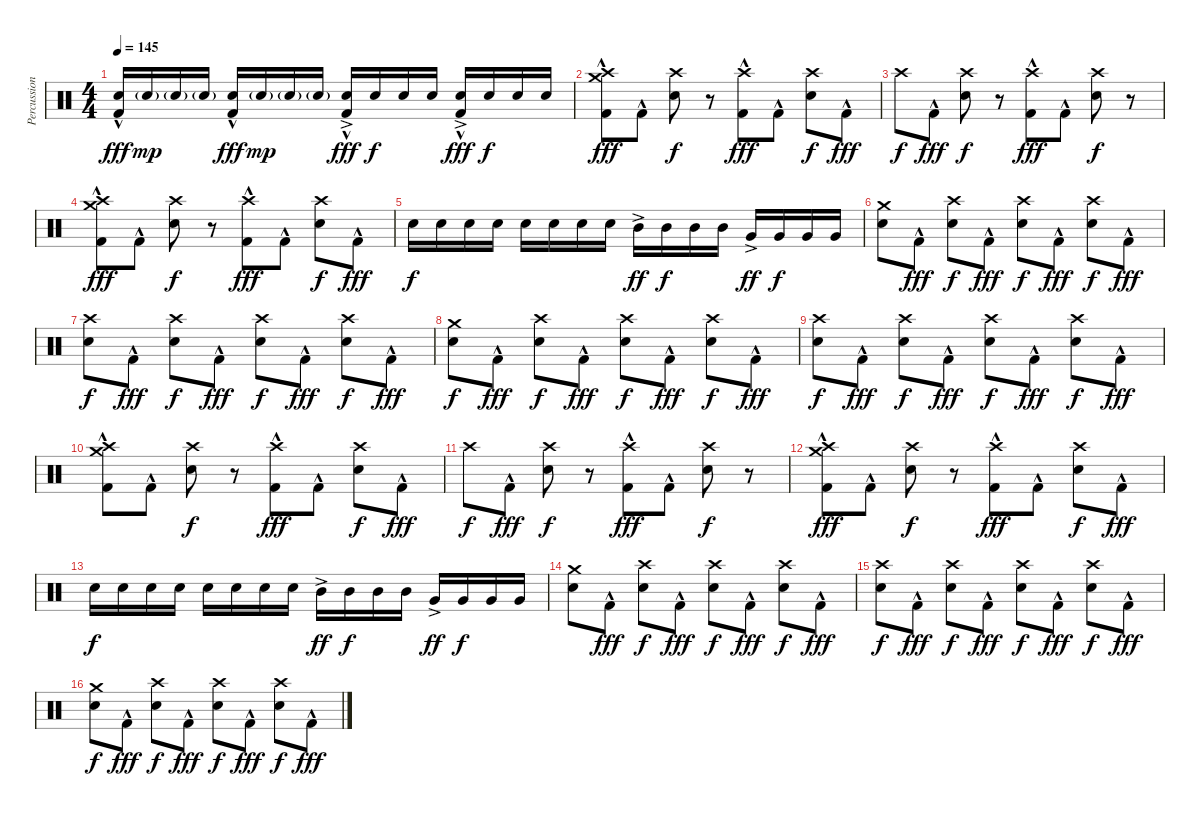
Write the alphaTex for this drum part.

\track ("Percussion" "Percussion") {instrument percussion}
\staff {score}
\articulation defaults
\ts (4 4)
\tempo 145
\clef neutral
\ks c
("Snare (hit) 2" "Kick (hit) 2"{hac}).16{dy fff} "Snare (hit) 2"{g}.16{dy mp} "Snare (hit) 2"{g}.16 "Snare (hit) 2"{g}.16 ("Snare (hit) 2" "Kick (hit) 2"{hac}).16{dy fff} "Snare (hit) 2"{g}.16{dy mp} "Snare (hit) 2"{g}.16 "Snare (hit) 2"{g}.16 ("Snare (hit) 2"{ac} "Kick (hit) 2"{hac}).16{dy fff} "Snare (hit) 2".16{dy f} "Snare (hit) 2".16 "Snare (hit) 2".16 ("Snare (hit) 2"{ac} "Kick (hit) 2"{hac}).16{dy fff} "Snare (hit) 2".16{dy f} "Snare (hit) 2".16 "Snare (hit) 2".16 |
("Crash medium (hit)" "Crash high (hit)" "Kick (hit) 2"{hac}).8{dy fff} "Kick (hit) 2"{hac}.8 ("Crash high (hit)" "Snare (hit) 2").8{dy f} r.8 ("Crash high (hit)" "Kick (hit) 2"{hac}).8{dy fff} "Kick (hit) 2"{hac}.8 ("Crash high (hit)" "Snare (hit) 2").8{dy f} "Kick (hit) 2"{hac}.8{dy fff} |
"Crash high (hit)".8{dy f} "Kick (hit) 2"{hac}.8{dy fff} ("Crash high (hit)" "Snare (hit) 2").8{dy f} r.8 ("Crash high (hit)" "Kick (hit) 2"{hac}).8{dy fff} "Kick (hit) 2"{hac}.8 ("Crash high (hit)" "Snare (hit) 2").8{dy f} r.8 |
("Crash medium (hit)" "Crash high (hit)" "Kick (hit) 2"{hac}).8{dy fff} "Kick (hit) 2"{hac}.8 ("Crash high (hit)" "Snare (hit) 2").8{dy f} r.8 ("Crash high (hit)" "Kick (hit) 2"{hac}).8{dy fff} "Kick (hit) 2"{hac}.8 ("Crash high (hit)" "Snare (hit) 2").8{dy f} "Kick (hit) 2"{hac}.8{dy fff} |
"Snare (hit) 2".16{dy f} "Snare (hit) 2".16 "Snare (hit) 2".16 "Snare (hit) 2".16 "Snare (hit) 2".16 "Snare (hit) 2".16 "Snare (hit) 2".16 "Snare (hit) 2".16 "Mid Tom (hit)"{ac}.16{dy ff} "Mid Tom (hit)".16{dy f} "Mid Tom (hit)".16 "Mid Tom (hit)".16 "Very Low Tom (hit)"{ac}.16{dy ff} "Very Low Tom (hit)".16{dy f} "Very Low Tom (hit)".16 "Very Low Tom (hit)".16 |
("Crash medium (hit)" "Snare (hit) 2").8 "Kick (hit) 2"{hac}.8{dy fff} ("Crash high (hit)" "Snare (hit) 2").8{dy f} "Kick (hit) 2"{hac}.8{dy fff} ("Crash high (hit)" "Snare (hit) 2").8{dy f} "Kick (hit) 2"{hac}.8{dy fff} ("Crash high (hit)" "Snare (hit) 2").8{dy f} "Kick (hit) 2"{hac}.8{dy fff} |
("Crash high (hit)" "Snare (hit) 2").8{dy f} "Kick (hit) 2"{hac}.8{dy fff} ("Crash high (hit)" "Snare (hit) 2").8{dy f} "Kick (hit) 2"{hac}.8{dy fff} ("Crash high (hit)" "Snare (hit) 2").8{dy f} "Kick (hit) 2"{hac}.8{dy fff} ("Crash high (hit)" "Snare (hit) 2").8{dy f} "Kick (hit) 2"{hac}.8{dy fff} |
("Crash medium (hit)" "Snare (hit) 2").8{dy f} "Kick (hit) 2"{hac}.8{dy fff} ("Crash high (hit)" "Snare (hit) 2").8{dy f} "Kick (hit) 2"{hac}.8{dy fff} ("Crash high (hit)" "Snare (hit) 2").8{dy f} "Kick (hit) 2"{hac}.8{dy fff} ("Crash high (hit)" "Snare (hit) 2").8{dy f} "Kick (hit) 2"{hac}.8{dy fff} |
("Crash high (hit)" "Snare (hit) 2").8{dy f} "Kick (hit) 2"{hac}.8{dy fff} ("Crash high (hit)" "Snare (hit) 2").8{dy f} "Kick (hit) 2"{hac}.8{dy fff} ("Crash high (hit)" "Snare (hit) 2").8{dy f} "Kick (hit) 2"{hac}.8{dy fff} ("Crash high (hit)" "Snare (hit) 2").8{dy f} "Kick (hit) 2"{hac}.8{dy fff} |
("Crash medium (hit)" "Crash high (hit)" "Kick (hit) 2"{hac}).8 "Kick (hit) 2"{hac}.8 ("Crash high (hit)" "Snare (hit) 2").8{dy f} r.8 ("Crash high (hit)" "Kick (hit) 2"{hac}).8{dy fff} "Kick (hit) 2"{hac}.8 ("Crash high (hit)" "Snare (hit) 2").8{dy f} "Kick (hit) 2"{hac}.8{dy fff} |
"Crash high (hit)".8{dy f} "Kick (hit) 2"{hac}.8{dy fff} ("Crash high (hit)" "Snare (hit) 2").8{dy f} r.8 ("Crash high (hit)" "Kick (hit) 2"{hac}).8{dy fff} "Kick (hit) 2"{hac}.8 ("Crash high (hit)" "Snare (hit) 2").8{dy f} r.8 |
("Crash medium (hit)" "Crash high (hit)" "Kick (hit) 2"{hac}).8{dy fff} "Kick (hit) 2"{hac}.8 ("Crash high (hit)" "Snare (hit) 2").8{dy f} r.8 ("Crash high (hit)" "Kick (hit) 2"{hac}).8{dy fff} "Kick (hit) 2"{hac}.8 ("Crash high (hit)" "Snare (hit) 2").8{dy f} "Kick (hit) 2"{hac}.8{dy fff} |
"Snare (hit) 2".16{dy f} "Snare (hit) 2".16 "Snare (hit) 2".16 "Snare (hit) 2".16 "Snare (hit) 2".16 "Snare (hit) 2".16 "Snare (hit) 2".16 "Snare (hit) 2".16 "Mid Tom (hit)"{ac}.16{dy ff} "Mid Tom (hit)".16{dy f} "Mid Tom (hit)".16 "Mid Tom (hit)".16 "Very Low Tom (hit)"{ac}.16{dy ff} "Very Low Tom (hit)".16{dy f} "Very Low Tom (hit)".16 "Very Low Tom (hit)".16 |
("Crash medium (hit)" "Snare (hit) 2").8 "Kick (hit) 2"{hac}.8{dy fff} ("Crash high (hit)" "Snare (hit) 2").8{dy f} "Kick (hit) 2"{hac}.8{dy fff} ("Crash high (hit)" "Snare (hit) 2").8{dy f} "Kick (hit) 2"{hac}.8{dy fff} ("Crash high (hit)" "Snare (hit) 2").8{dy f} "Kick (hit) 2"{hac}.8{dy fff} |
("Crash high (hit)" "Snare (hit) 2").8{dy f} "Kick (hit) 2"{hac}.8{dy fff} ("Crash high (hit)" "Snare (hit) 2").8{dy f} "Kick (hit) 2"{hac}.8{dy fff} ("Crash high (hit)" "Snare (hit) 2").8{dy f} "Kick (hit) 2"{hac}.8{dy fff} ("Crash high (hit)" "Snare (hit) 2").8{dy f} "Kick (hit) 2"{hac}.8{dy fff} |
("Crash medium (hit)" "Snare (hit) 2").8{dy f} "Kick (hit) 2"{hac}.8{dy fff} ("Crash high (hit)" "Snare (hit) 2").8{dy f} "Kick (hit) 2"{hac}.8{dy fff} ("Crash high (hit)" "Snare (hit) 2").8{dy f} "Kick (hit) 2"{hac}.8{dy fff} ("Crash high (hit)" "Snare (hit) 2").8{dy f} "Kick (hit) 2"{hac}.8{dy fff}
